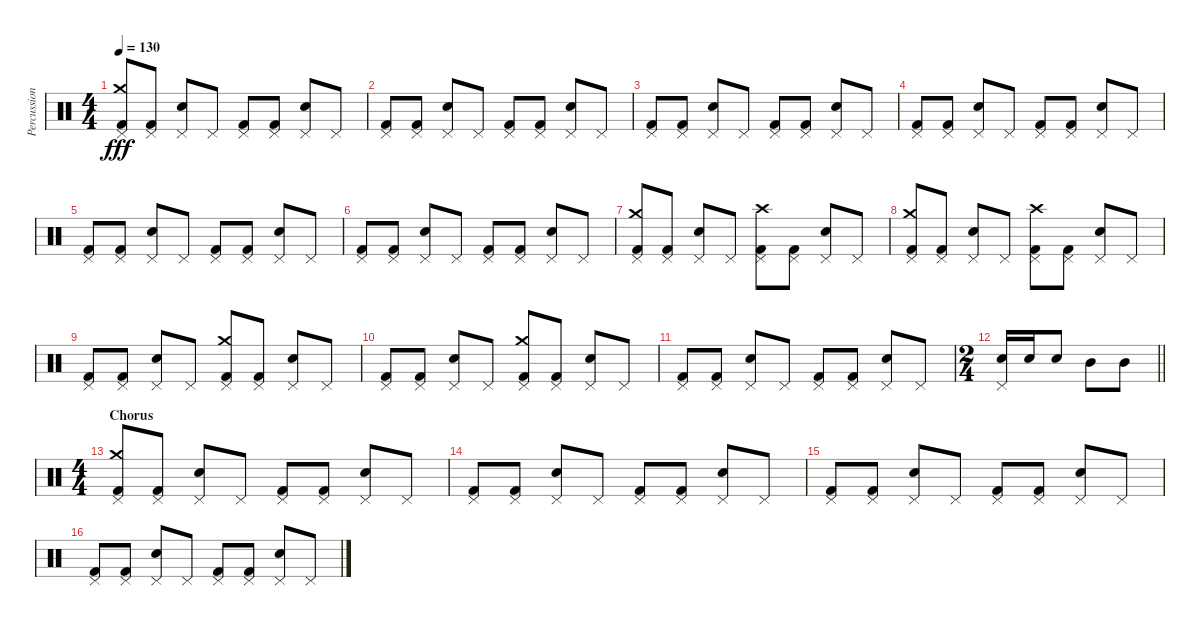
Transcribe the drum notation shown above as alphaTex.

\track ("Percussion" "Percussion") {instrument percussion}
\staff {score}
\articulation defaults
\ts (4 4)
\tempo 130
\clef neutral
\ks c
("Pedal Hi-Hat (hit)" "Crash medium (hit)" "Kick (hit) 2").8{dy fff} ("Pedal Hi-Hat (hit)" "Kick (hit) 2").8 ("Pedal Hi-Hat (hit)" "Electric Snare (hit)").8 "Pedal Hi-Hat (hit)".8 ("Pedal Hi-Hat (hit)" "Kick (hit) 2").8 ("Pedal Hi-Hat (hit)" "Kick (hit) 2").8 ("Pedal Hi-Hat (hit)" "Electric Snare (hit)").8 "Pedal Hi-Hat (hit)".8 |
("Pedal Hi-Hat (hit)" "Kick (hit) 2").8 ("Pedal Hi-Hat (hit)" "Kick (hit) 2").8 ("Pedal Hi-Hat (hit)" "Electric Snare (hit)").8 "Pedal Hi-Hat (hit)".8 ("Pedal Hi-Hat (hit)" "Kick (hit) 2").8 ("Pedal Hi-Hat (hit)" "Kick (hit) 2").8 ("Pedal Hi-Hat (hit)" "Electric Snare (hit)").8 "Pedal Hi-Hat (hit)".8 |
("Pedal Hi-Hat (hit)" "Kick (hit) 2").8 ("Pedal Hi-Hat (hit)" "Kick (hit) 2").8 ("Pedal Hi-Hat (hit)" "Electric Snare (hit)").8 "Pedal Hi-Hat (hit)".8 ("Pedal Hi-Hat (hit)" "Kick (hit) 2").8 ("Pedal Hi-Hat (hit)" "Kick (hit) 2").8 ("Pedal Hi-Hat (hit)" "Electric Snare (hit)").8 "Pedal Hi-Hat (hit)".8 |
("Pedal Hi-Hat (hit)" "Kick (hit) 2").8 ("Pedal Hi-Hat (hit)" "Kick (hit) 2").8 ("Pedal Hi-Hat (hit)" "Electric Snare (hit)").8 "Pedal Hi-Hat (hit)".8 ("Pedal Hi-Hat (hit)" "Kick (hit) 2").8 ("Pedal Hi-Hat (hit)" "Kick (hit) 2").8 ("Pedal Hi-Hat (hit)" "Electric Snare (hit)").8 "Pedal Hi-Hat (hit)".8 |
("Pedal Hi-Hat (hit)" "Kick (hit) 2").8 ("Pedal Hi-Hat (hit)" "Kick (hit) 2").8 ("Pedal Hi-Hat (hit)" "Electric Snare (hit)").8 "Pedal Hi-Hat (hit)".8 ("Pedal Hi-Hat (hit)" "Kick (hit) 2").8 ("Pedal Hi-Hat (hit)" "Kick (hit) 2").8 ("Pedal Hi-Hat (hit)" "Electric Snare (hit)").8 "Pedal Hi-Hat (hit)".8 |
("Pedal Hi-Hat (hit)" "Kick (hit) 2").8 ("Pedal Hi-Hat (hit)" "Kick (hit) 2").8 ("Pedal Hi-Hat (hit)" "Electric Snare (hit)").8 "Pedal Hi-Hat (hit)".8 ("Pedal Hi-Hat (hit)" "Kick (hit) 2").8 ("Pedal Hi-Hat (hit)" "Kick (hit) 2").8 ("Pedal Hi-Hat (hit)" "Electric Snare (hit)").8 "Pedal Hi-Hat (hit)".8 |
("Pedal Hi-Hat (hit)" "Crash medium (hit)" "Kick (hit) 2").8 ("Pedal Hi-Hat (hit)" "Kick (hit) 2").8 ("Pedal Hi-Hat (hit)" "Electric Snare (hit)").8 "Pedal Hi-Hat (hit)".8 ("Pedal Hi-Hat (hit)" "Crash high (hit)" "Kick (hit) 2").8 ("Pedal Hi-Hat (hit)" "Kick (hit) 2").8 ("Pedal Hi-Hat (hit)" "Electric Snare (hit)").8 "Pedal Hi-Hat (hit)".8 |
("Pedal Hi-Hat (hit)" "Crash medium (hit)" "Kick (hit) 2").8 ("Pedal Hi-Hat (hit)" "Kick (hit) 2").8 ("Pedal Hi-Hat (hit)" "Electric Snare (hit)").8 "Pedal Hi-Hat (hit)".8 ("Pedal Hi-Hat (hit)" "Crash high (hit)" "Kick (hit) 2").8 ("Pedal Hi-Hat (hit)" "Kick (hit) 2").8 ("Pedal Hi-Hat (hit)" "Electric Snare (hit)").8 "Pedal Hi-Hat (hit)".8 |
("Pedal Hi-Hat (hit)" "Kick (hit) 2").8 ("Pedal Hi-Hat (hit)" "Kick (hit) 2").8 ("Pedal Hi-Hat (hit)" "Electric Snare (hit)").8 "Pedal Hi-Hat (hit)".8 ("Pedal Hi-Hat (hit)" "Crash medium (hit)" "Kick (hit) 2").8 ("Pedal Hi-Hat (hit)" "Kick (hit) 2").8 ("Pedal Hi-Hat (hit)" "Electric Snare (hit)").8 "Pedal Hi-Hat (hit)".8 |
("Pedal Hi-Hat (hit)" "Kick (hit) 2").8 ("Pedal Hi-Hat (hit)" "Kick (hit) 2").8 ("Pedal Hi-Hat (hit)" "Electric Snare (hit)").8 "Pedal Hi-Hat (hit)".8 ("Pedal Hi-Hat (hit)" "Crash medium (hit)" "Kick (hit) 2").8 ("Pedal Hi-Hat (hit)" "Kick (hit) 2").8 ("Pedal Hi-Hat (hit)" "Electric Snare (hit)").8 "Pedal Hi-Hat (hit)".8 |
("Pedal Hi-Hat (hit)" "Kick (hit) 2").8 ("Pedal Hi-Hat (hit)" "Kick (hit) 2").8 ("Pedal Hi-Hat (hit)" "Electric Snare (hit)").8 "Pedal Hi-Hat (hit)".8 ("Pedal Hi-Hat (hit)" "Kick (hit) 2").8 ("Pedal Hi-Hat (hit)" "Kick (hit) 2").8 ("Pedal Hi-Hat (hit)" "Electric Snare (hit)").8 "Pedal Hi-Hat (hit)".8 |
\ts (2 4)
\barLineRight lightlight
("Pedal Hi-Hat (hit)" "Electric Snare (hit)").16 "Electric Snare (hit)".16 "Electric Snare (hit)".8 "Mid Tom (hit)".8 "Mid Tom (hit)".8 |
\ts (4 4)
\section ("" "Chorus")
("Pedal Hi-Hat (hit)" "Crash medium (hit)" "Kick (hit) 2").8 ("Pedal Hi-Hat (hit)" "Kick (hit) 2").8 ("Pedal Hi-Hat (hit)" "Electric Snare (hit)").8 "Pedal Hi-Hat (hit)".8 ("Pedal Hi-Hat (hit)" "Kick (hit) 2").8 ("Pedal Hi-Hat (hit)" "Kick (hit) 2").8 ("Pedal Hi-Hat (hit)" "Electric Snare (hit)").8 "Pedal Hi-Hat (hit)".8 |
("Pedal Hi-Hat (hit)" "Kick (hit) 2").8 ("Pedal Hi-Hat (hit)" "Kick (hit) 2").8 ("Pedal Hi-Hat (hit)" "Electric Snare (hit)").8 "Pedal Hi-Hat (hit)".8 ("Pedal Hi-Hat (hit)" "Kick (hit) 2").8 ("Pedal Hi-Hat (hit)" "Kick (hit) 2").8 ("Pedal Hi-Hat (hit)" "Electric Snare (hit)").8 "Pedal Hi-Hat (hit)".8 |
("Pedal Hi-Hat (hit)" "Kick (hit) 2").8 ("Pedal Hi-Hat (hit)" "Kick (hit) 2").8 ("Pedal Hi-Hat (hit)" "Electric Snare (hit)").8 "Pedal Hi-Hat (hit)".8 ("Pedal Hi-Hat (hit)" "Kick (hit) 2").8 ("Pedal Hi-Hat (hit)" "Kick (hit) 2").8 ("Pedal Hi-Hat (hit)" "Electric Snare (hit)").8 "Pedal Hi-Hat (hit)".8 |
("Pedal Hi-Hat (hit)" "Kick (hit) 2").8 ("Pedal Hi-Hat (hit)" "Kick (hit) 2").8 ("Pedal Hi-Hat (hit)" "Electric Snare (hit)").8 "Pedal Hi-Hat (hit)".8 ("Pedal Hi-Hat (hit)" "Kick (hit) 2").8 ("Pedal Hi-Hat (hit)" "Kick (hit) 2").8 ("Pedal Hi-Hat (hit)" "Electric Snare (hit)").8 "Pedal Hi-Hat (hit)".8
